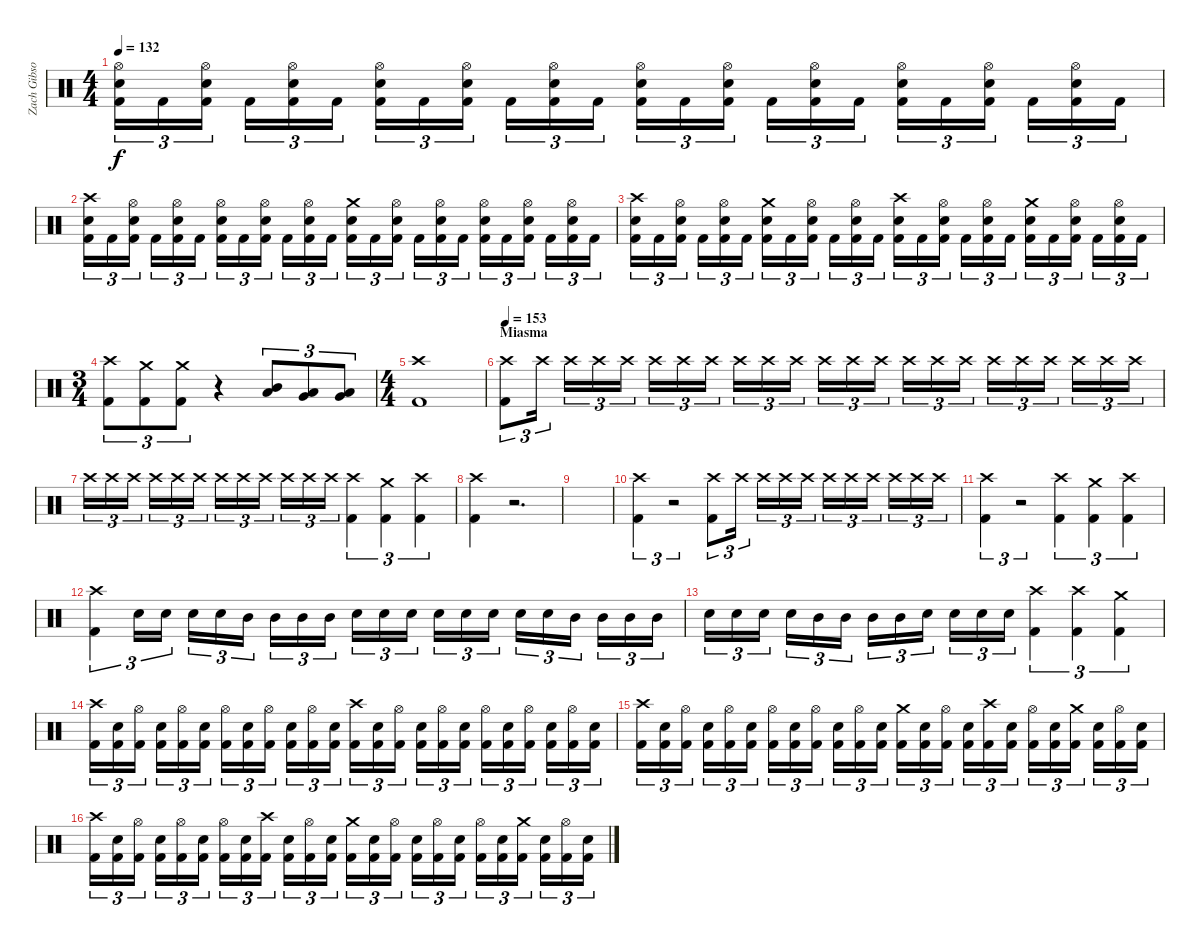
\track ("Zach Gibson (Drums)" "Zach Gibso") {instrument percussion}
\staff {score}
\articulation defaults
\ts (4 4)
\tempo 132
\clef neutral
\ks c
("Hi-Hat (open)" "Snare (hit) 2" "Kick (hit) 2").16{tu (3 2) dy f} "Kick (hit) 2".16{tu (3 2)} ("Hi-Hat (open)" "Snare (hit) 2" "Kick (hit) 2").16{tu (3 2)} "Kick (hit) 2".16{tu (3 2)} ("Hi-Hat (open)" "Snare (hit) 2" "Kick (hit) 2").16{tu (3 2)} "Kick (hit) 2".16{tu (3 2)} ("Hi-Hat (open)" "Snare (hit) 2" "Kick (hit) 2").16{tu (3 2)} "Kick (hit) 2".16{tu (3 2)} ("Hi-Hat (open)" "Snare (hit) 2" "Kick (hit) 2").16{tu (3 2)} "Kick (hit) 2".16{tu (3 2)} ("Hi-Hat (open)" "Snare (hit) 2" "Kick (hit) 2").16{tu (3 2)} "Kick (hit) 2".16{tu (3 2)} ("Hi-Hat (open)" "Snare (hit) 2" "Kick (hit) 2").16{tu (3 2)} "Kick (hit) 2".16{tu (3 2)} ("Hi-Hat (open)" "Snare (hit) 2" "Kick (hit) 2").16{tu (3 2)} "Kick (hit) 2".16{tu (3 2)} ("Hi-Hat (open)" "Snare (hit) 2" "Kick (hit) 2").16{tu (3 2)} "Kick (hit) 2".16{tu (3 2)} ("Hi-Hat (open)" "Snare (hit) 2" "Kick (hit) 2").16{tu (3 2)} "Kick (hit) 2".16{tu (3 2)} ("Hi-Hat (open)" "Snare (hit) 2" "Kick (hit) 2").16{tu (3 2)} "Kick (hit) 2".16{tu (3 2)} ("Hi-Hat (open)" "Snare (hit) 2" "Kick (hit) 2").16{tu (3 2)} "Kick (hit) 2".16{tu (3 2)} |
("Crash high (hit)" "Snare (hit) 2" "Kick (hit) 2").16{tu (3 2)} "Kick (hit) 2".16{tu (3 2)} ("Hi-Hat (open)" "Snare (hit) 2" "Kick (hit) 2").16{tu (3 2)} "Kick (hit) 2".16{tu (3 2)} ("Hi-Hat (open)" "Snare (hit) 2" "Kick (hit) 2").16{tu (3 2)} "Kick (hit) 2".16{tu (3 2)} ("Hi-Hat (open)" "Snare (hit) 2" "Kick (hit) 2").16{tu (3 2)} "Kick (hit) 2".16{tu (3 2)} ("Hi-Hat (open)" "Snare (hit) 2" "Kick (hit) 2").16{tu (3 2)} "Kick (hit) 2".16{tu (3 2)} ("Hi-Hat (open)" "Snare (hit) 2" "Kick (hit) 2").16{tu (3 2)} "Kick (hit) 2".16{tu (3 2)} ("Crash medium (hit)" "Snare (hit) 2" "Kick (hit) 2").16{tu (3 2)} "Kick (hit) 2".16{tu (3 2)} ("Hi-Hat (open)" "Snare (hit) 2" "Kick (hit) 2").16{tu (3 2)} "Kick (hit) 2".16{tu (3 2)} ("Hi-Hat (open)" "Snare (hit) 2" "Kick (hit) 2").16{tu (3 2)} "Kick (hit) 2".16{tu (3 2)} ("Hi-Hat (open)" "Snare (hit) 2" "Kick (hit) 2").16{tu (3 2)} "Kick (hit) 2".16{tu (3 2)} ("Hi-Hat (open)" "Snare (hit) 2" "Kick (hit) 2").16{tu (3 2)} "Kick (hit) 2".16{tu (3 2)} ("Hi-Hat (open)" "Snare (hit) 2" "Kick (hit) 2").16{tu (3 2)} "Kick (hit) 2".16{tu (3 2)} |
("Crash high (hit)" "Snare (hit) 2" "Kick (hit) 2").16{tu (3 2)} "Kick (hit) 2".16{tu (3 2)} ("Hi-Hat (open)" "Snare (hit) 2" "Kick (hit) 2").16{tu (3 2)} "Kick (hit) 2".16{tu (3 2)} ("Hi-Hat (open)" "Snare (hit) 2" "Kick (hit) 2").16{tu (3 2)} "Kick (hit) 2".16{tu (3 2)} ("Crash medium (hit)" "Snare (hit) 2" "Kick (hit) 2").16{tu (3 2)} "Kick (hit) 2".16{tu (3 2)} ("Hi-Hat (open)" "Snare (hit) 2" "Kick (hit) 2").16{tu (3 2)} "Kick (hit) 2".16{tu (3 2)} ("Hi-Hat (open)" "Snare (hit) 2" "Kick (hit) 2").16{tu (3 2)} "Kick (hit) 2".16{tu (3 2)} ("Crash high (hit)" "Snare (hit) 2" "Kick (hit) 2").16{tu (3 2)} "Kick (hit) 2".16{tu (3 2)} ("Hi-Hat (open)" "Snare (hit) 2" "Kick (hit) 2").16{tu (3 2)} "Kick (hit) 2".16{tu (3 2)} ("Hi-Hat (open)" "Snare (hit) 2" "Kick (hit) 2").16{tu (3 2)} "Kick (hit) 2".16{tu (3 2)} ("Crash medium (hit)" "Snare (hit) 2" "Kick (hit) 2").16{tu (3 2)} "Kick (hit) 2".16{tu (3 2)} ("Hi-Hat (open)" "Snare (hit) 2" "Kick (hit) 2").16{tu (3 2)} "Kick (hit) 2".16{tu (3 2)} ("Hi-Hat (open)" "Snare (hit) 2" "Kick (hit) 2").16{tu (3 2)} "Kick (hit) 2".16{tu (3 2)} |
\ts (3 4)
("Crash high (hit)" "Kick (hit) 2").8{tu (3 2)} ("Crash medium (hit)" "Kick (hit) 2").8{tu (3 2)} ("Crash medium (hit)" "Kick (hit) 2").8{tu (3 2)} r.4 ("Low Tom (hit)" "Mid Tom (hit)").8{tu (3 2)} ("Low Tom (hit)" "Very Low Tom (hit)").8{tu (3 2)} ("Very Low Tom (hit)" "Low Floor Tom (hit)").8{tu (3 2)} |
\ts (4 4)
("Crash high (hit)" "Kick (hit) 2").1 |
\section ("" "Miasma")
\tempo 153
("Crash high (hit)" "Kick (hit) 2").8{tu (3 2)} "Crash high (hit)".16{tu (3 2)} "Crash high (hit)".16{tu (3 2)} "Crash high (hit)".16{tu (3 2)} "Crash high (hit)".16{tu (3 2)} "Crash high (hit)".16{tu (3 2)} "Crash high (hit)".16{tu (3 2)} "Crash high (hit)".16{tu (3 2)} "Crash high (hit)".16{tu (3 2)} "Crash high (hit)".16{tu (3 2)} "Crash high (hit)".16{tu (3 2)} "Crash high (hit)".16{tu (3 2)} "Crash high (hit)".16{tu (3 2)} "Crash high (hit)".16{tu (3 2)} "Crash high (hit)".16{tu (3 2)} "Crash high (hit)".16{tu (3 2)} "Crash high (hit)".16{tu (3 2)} "Crash high (hit)".16{tu (3 2)} "Crash high (hit)".16{tu (3 2)} "Crash high (hit)".16{tu (3 2)} "Crash high (hit)".16{tu (3 2)} "Crash high (hit)".16{tu (3 2)} "Crash high (hit)".16{tu (3 2)} |
"Crash high (hit)".16{tu (3 2)} "Crash high (hit)".16{tu (3 2)} "Crash high (hit)".16{tu (3 2)} "Crash high (hit)".16{tu (3 2)} "Crash high (hit)".16{tu (3 2)} "Crash high (hit)".16{tu (3 2)} "Crash high (hit)".16{tu (3 2)} "Crash high (hit)".16{tu (3 2)} "Crash high (hit)".16{tu (3 2)} "Crash high (hit)".16{tu (3 2)} "Crash high (hit)".16{tu (3 2)} "Crash high (hit)".16{tu (3 2)} ("Crash high (hit)" "Kick (hit) 2").4{tu (3 2)} ("Crash medium (hit)" "Kick (hit) 2").4{tu (3 2)} ("Crash high (hit)" "Kick (hit) 2").4{tu (3 2)} |
("Crash high (hit)" "Kick (hit) 2").4 r.2{d} |
|
("Crash high (hit)" "Kick (hit) 2").4{tu (3 2)} r.2{tu (3 2)} ("Kick (hit) 2" "Crash high (hit)").8{tu (3 2)} "Crash high (hit)".16{tu (3 2)} "Crash high (hit)".16{tu (3 2)} "Crash high (hit)".16{tu (3 2)} "Crash high (hit)".16{tu (3 2)} "Crash high (hit)".16{tu (3 2)} "Crash high (hit)".16{tu (3 2)} "Crash high (hit)".16{tu (3 2)} "Crash high (hit)".16{tu (3 2)} "Crash high (hit)".16{tu (3 2)} "Crash high (hit)".16{tu (3 2)} |
("Kick (hit) 2" "Crash high (hit)").4{tu (3 2)} r.2{tu (3 2)} ("Crash high (hit)" "Kick (hit) 2").4{tu (3 2)} ("Crash medium (hit)" "Kick (hit) 2").4{tu (3 2)} ("Crash high (hit)" "Kick (hit) 2").4{tu (3 2)} |
("Crash high (hit)" "Kick (hit) 2").4{tu (3 2)} "Snare (hit) 2".16{tu (3 2)} "Snare (hit) 2".16{tu (3 2)} "Snare (hit) 2".16{tu (3 2)} "Snare (hit) 2".16{tu (3 2)} "Mid Tom (hit)".16{tu (3 2)} "Mid Tom (hit)".16{tu (3 2)} "Mid Tom (hit)".16{tu (3 2)} "Mid Tom (hit)".16{tu (3 2)} "Snare (hit) 2".16{tu (3 2)} "Snare (hit) 2".16{tu (3 2)} "Snare (hit) 2".16{tu (3 2)} "Snare (hit) 2".16{tu (3 2)} "Snare (hit) 2".16{tu (3 2)} "Snare (hit) 2".16{tu (3 2)} "Snare (hit) 2".16{tu (3 2)} "Snare (hit) 2".16{tu (3 2)} "Mid Tom (hit)".16{tu (3 2)} "Mid Tom (hit)".16{tu (3 2)} "Mid Tom (hit)".16{tu (3 2)} "Mid Tom (hit)".16{tu (3 2)} |
"Snare (hit) 2".16{tu (3 2)} "Snare (hit) 2".16{tu (3 2)} "Snare (hit) 2".16{tu (3 2)} "Snare (hit) 2".16{tu (3 2)} "Mid Tom (hit)".16{tu (3 2)} "Mid Tom (hit)".16{tu (3 2)} "Mid Tom (hit)".16{tu (3 2)} "Mid Tom (hit)".16{tu (3 2)} "Snare (hit) 2".16{tu (3 2)} "Snare (hit) 2".16{tu (3 2)} "Snare (hit) 2".16{tu (3 2)} "Snare (hit) 2".16{tu (3 2)} ("Crash high (hit)" "Kick (hit) 2").4{tu (3 2)} ("Crash high (hit)" "Kick (hit) 2").4{tu (3 2)} ("Crash medium (hit)" "Kick (hit) 2").4{tu (3 2)} |
("Crash high (hit)" "Kick (hit) 2").16{tu (3 2)} ("Snare (hit) 2" "Kick (hit) 2").16{tu (3 2)} ("Hi-Hat (open)" "Kick (hit) 2").16{tu (3 2)} ("Snare (hit) 2" "Kick (hit) 2").16{tu (3 2)} ("Hi-Hat (open)" "Kick (hit) 2").16{tu (3 2)} ("Snare (hit) 2" "Kick (hit) 2").16{tu (3 2)} ("Hi-Hat (open)" "Kick (hit) 2").16{tu (3 2)} ("Snare (hit) 2" "Kick (hit) 2").16{tu (3 2)} ("Hi-Hat (open)" "Kick (hit) 2").16{tu (3 2)} ("Snare (hit) 2" "Kick (hit) 2").16{tu (3 2)} ("Hi-Hat (open)" "Kick (hit) 2").16{tu (3 2)} ("Snare (hit) 2" "Kick (hit) 2").16{tu (3 2)} ("Crash high (hit)" "Kick (hit) 2").16{tu (3 2)} ("Snare (hit) 2" "Kick (hit) 2").16{tu (3 2)} ("Hi-Hat (open)" "Kick (hit) 2").16{tu (3 2)} ("Snare (hit) 2" "Kick (hit) 2").16{tu (3 2)} ("Hi-Hat (open)" "Kick (hit) 2").16{tu (3 2)} ("Snare (hit) 2" "Kick (hit) 2").16{tu (3 2)} ("Hi-Hat (open)" "Kick (hit) 2").16{tu (3 2)} ("Snare (hit) 2" "Kick (hit) 2").16{tu (3 2)} ("Hi-Hat (open)" "Kick (hit) 2").16{tu (3 2)} ("Snare (hit) 2" "Kick (hit) 2").16{tu (3 2)} ("Hi-Hat (open)" "Kick (hit) 2").16{tu (3 2)} ("Snare (hit) 2" "Kick (hit) 2").16{tu (3 2)} |
("Crash high (hit)" "Kick (hit) 2").16{tu (3 2)} ("Snare (hit) 2" "Kick (hit) 2").16{tu (3 2)} ("Hi-Hat (open)" "Kick (hit) 2").16{tu (3 2)} ("Snare (hit) 2" "Kick (hit) 2").16{tu (3 2)} ("Hi-Hat (open)" "Kick (hit) 2").16{tu (3 2)} ("Snare (hit) 2" "Kick (hit) 2").16{tu (3 2)} ("Hi-Hat (open)" "Kick (hit) 2").16{tu (3 2)} ("Snare (hit) 2" "Kick (hit) 2").16{tu (3 2)} ("Hi-Hat (open)" "Kick (hit) 2").16{tu (3 2)} ("Snare (hit) 2" "Kick (hit) 2").16{tu (3 2)} ("Hi-Hat (open)" "Kick (hit) 2").16{tu (3 2)} ("Snare (hit) 2" "Kick (hit) 2").16{tu (3 2)} ("Crash medium (hit)" "Kick (hit) 2").16{tu (3 2)} ("Snare (hit) 2" "Kick (hit) 2").16{tu (3 2)} ("Hi-Hat (open)" "Kick (hit) 2").16{tu (3 2)} ("Snare (hit) 2" "Kick (hit) 2").16{tu (3 2)} ("Crash high (hit)" "Kick (hit) 2").16{tu (3 2)} ("Snare (hit) 2" "Kick (hit) 2").16{tu (3 2)} ("Hi-Hat (open)" "Kick (hit) 2").16{tu (3 2)} ("Snare (hit) 2" "Kick (hit) 2").16{tu (3 2)} ("Crash medium (hit)" "Kick (hit) 2").16{tu (3 2)} ("Snare (hit) 2" "Kick (hit) 2").16{tu (3 2)} ("Hi-Hat (open)" "Kick (hit) 2").16{tu (3 2)} ("Snare (hit) 2" "Kick (hit) 2").16{tu (3 2)} |
("Crash high (hit)" "Kick (hit) 2").16{tu (3 2)} ("Snare (hit) 2" "Kick (hit) 2").16{tu (3 2)} ("Hi-Hat (open)" "Kick (hit) 2").16{tu (3 2)} ("Snare (hit) 2" "Kick (hit) 2").16{tu (3 2)} ("Hi-Hat (open)" "Kick (hit) 2").16{tu (3 2)} ("Snare (hit) 2" "Kick (hit) 2").16{tu (3 2)} ("Hi-Hat (open)" "Kick (hit) 2").16{tu (3 2)} ("Snare (hit) 2" "Kick (hit) 2").16{tu (3 2)} ("Crash high (hit)" "Kick (hit) 2").16{tu (3 2)} ("Snare (hit) 2" "Kick (hit) 2").16{tu (3 2)} ("Hi-Hat (open)" "Kick (hit) 2").16{tu (3 2)} ("Snare (hit) 2" "Kick (hit) 2").16{tu (3 2)} ("Crash medium (hit)" "Kick (hit) 2").16{tu (3 2)} ("Snare (hit) 2" "Kick (hit) 2").16{tu (3 2)} ("Hi-Hat (open)" "Kick (hit) 2").16{tu (3 2)} ("Snare (hit) 2" "Kick (hit) 2").16{tu (3 2)} ("Hi-Hat (open)" "Kick (hit) 2").16{tu (3 2)} ("Snare (hit) 2" "Kick (hit) 2").16{tu (3 2)} ("Hi-Hat (open)" "Kick (hit) 2").16{tu (3 2)} ("Snare (hit) 2" "Kick (hit) 2").16{tu (3 2)} ("Crash medium (hit)" "Kick (hit) 2").16{tu (3 2)} ("Snare (hit) 2" "Kick (hit) 2").16{tu (3 2)} ("Hi-Hat (open)" "Kick (hit) 2").16{tu (3 2)} ("Snare (hit) 2" "Kick (hit) 2").16{tu (3 2)}
